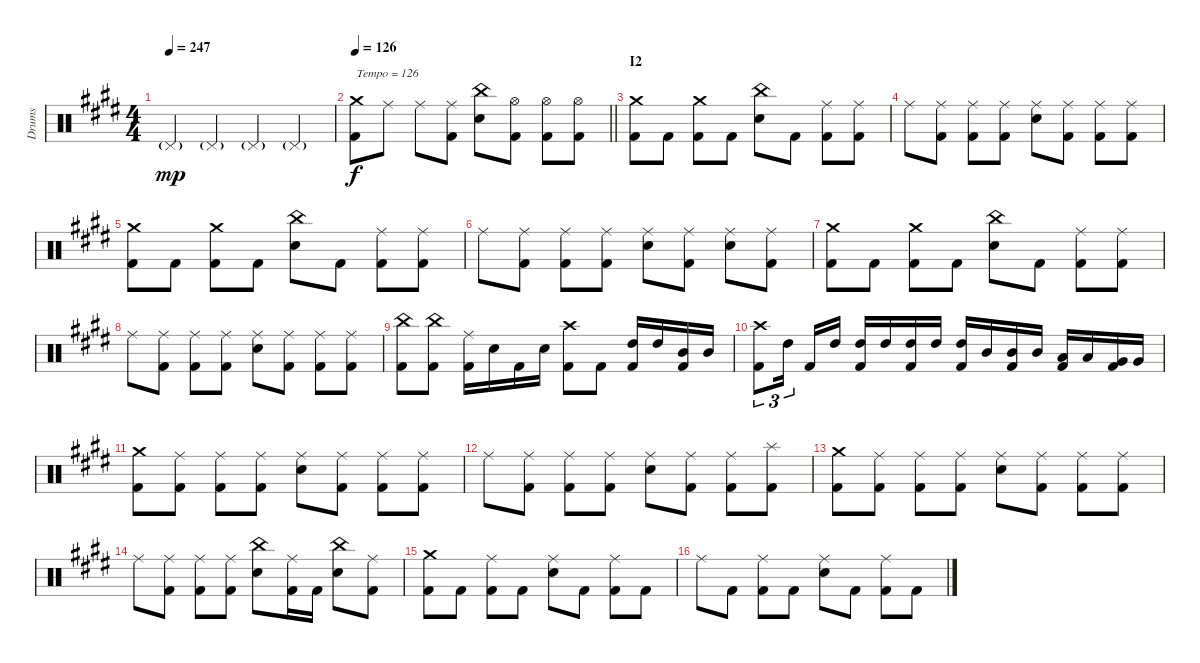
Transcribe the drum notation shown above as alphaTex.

\track ("Drums" "Drums") {instrument percussion}
\staff {score}
\articulation defaults
\ts (4 4)
\tempo 247
\clef neutral
\ks c#minor "Pedal Hi-Hat (hit)"{g}.4{dy mp volume 0} "Pedal Hi-Hat (hit)"{g}.4 "Pedal Hi-Hat (hit)"{g}.4 "Pedal Hi-Hat (hit)"{g}.4
|
\tempo 126
\barLineRight lightlight
("Crash medium (hit)" "Kick (hit) 2").8{txt "Tempo = 126" dy f volume 16} "Ride (middle)".8 "Ride (middle)".8 ("Ride (middle)" "Kick (hit) 2").8 ("China (hit)" "Snare (hit) 2").8 ("Hi-Hat (open)" "Kick (hit) 2").8 ("Hi-Hat (open)" "Kick (hit) 2").8 ("Hi-Hat (open)" "Kick (hit) 2").8 |
\section ("" "I2")
("Crash medium (hit)" "Kick (hit) 2").8 "Kick (hit) 2".8 ("Crash medium (hit)" "Kick (hit) 2").8 "Kick (hit) 2".8 ("China (hit)" "Snare (hit) 2").8 "Kick (hit) 2".8 ("Ride (middle)" "Kick (hit) 2").8 ("Ride (middle)" "Kick (hit) 2").8 |
"Ride (middle)".8 ("Ride (middle)" "Kick (hit) 2").8 ("Ride (middle)" "Kick (hit) 2").8 ("Ride (middle)" "Kick (hit) 2").8 ("Ride (middle)" "Snare (hit) 2").8 ("Ride (middle)" "Kick (hit) 2").8 ("Ride (middle)" "Kick (hit) 2").8 ("Ride (middle)" "Kick (hit) 2").8 |
("Crash medium (hit)" "Kick (hit) 2").8 "Kick (hit) 2".8 ("Crash medium (hit)" "Kick (hit) 2").8 "Kick (hit) 2".8 ("China (hit)" "Snare (hit) 2").8 "Kick (hit) 2".8 ("Ride (middle)" "Kick (hit) 2").8 ("Ride (middle)" "Kick (hit) 2").8 |
"Ride (middle)".8 ("Ride (middle)" "Kick (hit) 2").8 ("Ride (middle)" "Kick (hit) 2").8 ("Ride (middle)" "Kick (hit) 2").8 ("Ride (middle)" "Snare (hit) 2").8 ("Ride (middle)" "Kick (hit) 2").8 ("Ride (middle)" "Snare (hit) 2").8 ("Ride (middle)" "Kick (hit) 2").8 |
("Crash medium (hit)" "Kick (hit) 2").8 "Kick (hit) 2".8 ("Crash medium (hit)" "Kick (hit) 2").8 "Kick (hit) 2".8 ("China (hit)" "Snare (hit) 2").8 "Kick (hit) 2".8 ("Ride (middle)" "Kick (hit) 2").8 ("Ride (middle)" "Kick (hit) 2").8 |
"Ride (middle)".8 ("Ride (middle)" "Kick (hit) 2").8 ("Ride (middle)" "Kick (hit) 2").8 ("Ride (middle)" "Kick (hit) 2").8 ("Ride (middle)" "Snare (hit) 2").8 ("Ride (middle)" "Kick (hit) 2").8 ("Ride (middle)" "Kick (hit) 2").8 ("Ride (middle)" "Kick (hit) 2").8 |
("China (hit)" "Kick (hit) 2").8 ("China (hit)" "Kick (hit) 2").8 ("Ride (middle)" "Kick (hit) 2").16 "Snare (hit) 2".16 "Kick (hit) 2".16 "Snare (hit) 2".16 ("Crash high (hit)" "Kick (hit) 2").8 "Kick (hit) 2".8 ("High Tom (hit)" "Kick (hit) 2").16 "High Tom (hit)".16 ("Mid Tom (hit)" "Kick (hit) 2").16 "Mid Tom (hit)".16 |
("Crash high (hit)" "Kick (hit) 2").8{tu (3 2)} "High Tom (hit)".16{tu (3 2) beam splitsecondary} "Kick (hit) 2".16 "High Tom (hit)".16 ("High Tom (hit)" "Kick (hit) 2").16 "High Tom (hit)".16 ("High Tom (hit)" "Kick (hit) 2").16 "High Tom (hit)".16 ("High Tom (hit)" "Kick (hit) 2").16 "Mid Tom (hit)".16 ("Mid Tom (hit)" "Kick (hit) 2").16 "Mid Tom (hit)".16 ("Low Tom (hit)" "Kick (hit) 2").16 "Low Tom (hit)".16 ("Very Low Tom (hit)" "Kick (hit) 2").16 "Very Low Tom (hit)".16 |
("Crash medium (hit)" "Kick (hit) 2").8 ("Ride (middle)" "Kick (hit) 2").8 ("Ride (middle)" "Kick (hit) 2").8 ("Ride (middle)" "Kick (hit) 2").8 ("Ride (middle)" "Snare (hit) 2").8 ("Ride (middle)" "Kick (hit) 2").8 ("Ride (middle)" "Kick (hit) 2").8 ("Ride (middle)" "Kick (hit) 2").8 |
"Ride (middle)".8 ("Ride (middle)" "Kick (hit) 2").8 ("Ride (middle)" "Kick (hit) 2").8 ("Ride (middle)" "Kick (hit) 2").8 ("Ride (middle)" "Snare (hit) 2").8 ("Ride (middle)" "Kick (hit) 2").8 ("Ride (middle)" "Kick (hit) 2").8 ("Splash (hit)" "Kick (hit) 2").8 |
("Crash medium (hit)" "Kick (hit) 2").8 ("Ride (middle)" "Kick (hit) 2").8 ("Ride (middle)" "Kick (hit) 2").8 ("Ride (middle)" "Kick (hit) 2").8 ("Ride (middle)" "Snare (hit) 2").8 ("Ride (middle)" "Kick (hit) 2").8 ("Ride (middle)" "Kick (hit) 2").8 ("Ride (middle)" "Kick (hit) 2").8 |
"Ride (middle)".8 ("Ride (middle)" "Kick (hit) 2").8 ("Ride (middle)" "Kick (hit) 2").8 ("Ride (middle)" "Kick (hit) 2").8 ("China (hit)" "Snare (hit) 2").8 ("Ride (middle)" "Kick (hit) 2").16 "Kick (hit) 2".16 ("China (hit)" "Snare (hit) 2").8 ("Ride (middle)" "Kick (hit) 2").8 |
("Crash medium (hit)" "Kick (hit) 2").8 "Kick (hit) 2".8 ("Ride (middle)" "Kick (hit) 2").8 "Kick (hit) 2".8 ("Ride (middle)" "Snare (hit) 2").8 "Kick (hit) 2".8 ("Ride (middle)" "Kick (hit) 2").8 "Kick (hit) 2".8 |
"Ride (middle)".8 "Kick (hit) 2".8 ("Ride (middle)" "Kick (hit) 2").8 "Kick (hit) 2".8 ("Ride (middle)" "Snare (hit) 2").8 "Kick (hit) 2".8 ("Ride (middle)" "Kick (hit) 2").8 "Kick (hit) 2".8
